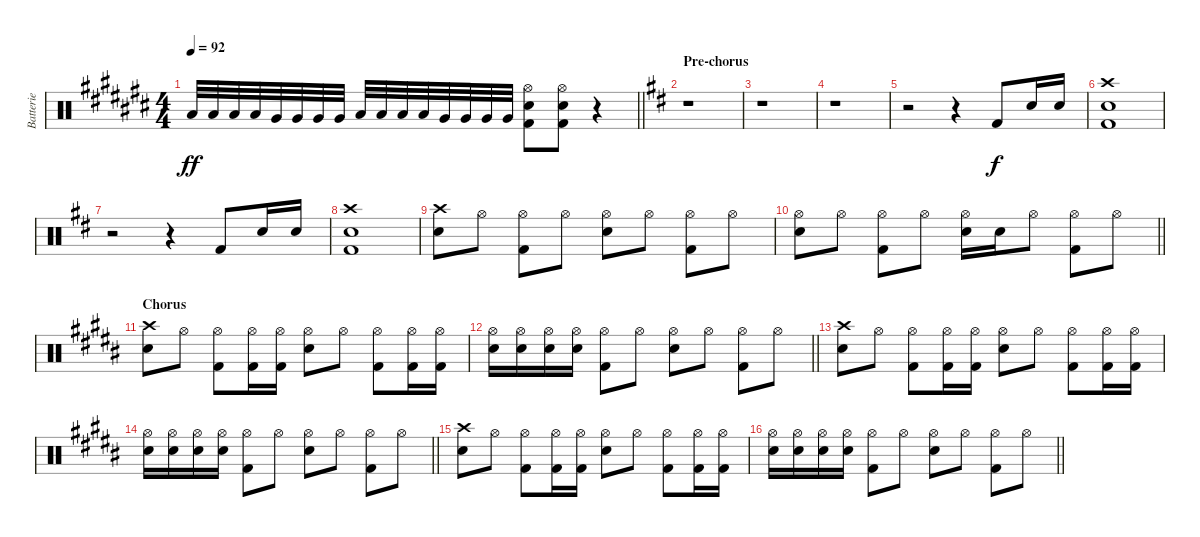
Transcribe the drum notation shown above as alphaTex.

\track ("Batterie" "Batterie") {instrument percussion}
\staff {score}
\articulation defaults
\ts (4 4)
\tempo 92
\clef neutral
\barLineRight lightlight
\ks c# "Low Tom (hit)".32{dy ff} "Low Tom (hit)".32 "Low Tom (hit)".32 "Low Tom (hit)".32 "Very Low Tom (hit)".32 "Very Low Tom (hit)".32 "Very Low Tom (hit)".32 "Very Low Tom (hit)".32 "Low Floor Tom (hit)".32 "Low Floor Tom (hit)".32 "Low Floor Tom (hit)".32 "Low Floor Tom (hit)".32 "Very Low Tom (hit)".32 "Very Low Tom (hit)".32 "Very Low Tom (hit)".32 "Very Low Tom (hit)".32
("Hi-Hat (open)" "Snare (hit) 2" "Kick (hit) 2").8 ("Hi-Hat (open)" "Snare (hit) 2" "Kick (hit) 2").8 r.4 |
\section ("" "Pre-chorus")
\ks d
r.1 |
r.1 |
r.1 |
r.2 r.4 "Kick (hit) 2".8{dy f} "Snare (hit) 2".16 "Snare (hit) 2".16 |
("Crash high (hit)" "Snare (hit) 2" "Kick (hit) 2").1 |
r.2 r.4 "Kick (hit) 2".8 "Snare (hit) 2".16 "Snare (hit) 2".16 |
("Crash high (hit)" "Snare (hit) 2" "Kick (hit) 2").1 |
("Crash high (hit)" "Snare (hit) 2").8 "Hi-Hat (open)".8 ("Hi-Hat (open)" "Kick (hit) 2").8 "Hi-Hat (open)".8 ("Hi-Hat (open)" "Snare (hit) 2").8 "Hi-Hat (open)".8 ("Hi-Hat (open)" "Kick (hit) 2").8 "Hi-Hat (open)".8 |
\barLineRight lightlight
("Hi-Hat (open)" "Snare (hit) 2").8 "Hi-Hat (open)".8 ("Hi-Hat (open)" "Kick (hit) 2").8 "Hi-Hat (open)".8 ("Hi-Hat (open)" "Snare (hit) 2").16 "Snare (hit) 2".16 "Hi-Hat (open)".8 ("Hi-Hat (open)" "Kick (hit) 2").8 "Hi-Hat (open)".8 |
\section ("" "Chorus")
\ks b
("Crash high (hit)" "Snare (hit) 2").8 "Hi-Hat (open)".8 ("Hi-Hat (open)" "Kick (hit) 2").8 ("Hi-Hat (open)" "Kick (hit) 2").16 ("Hi-Hat (open)" "Kick (hit) 2").16 ("Hi-Hat (open)" "Snare (hit) 2").8 "Hi-Hat (open)".8 ("Hi-Hat (open)" "Kick (hit) 2").8 ("Hi-Hat (open)" "Kick (hit) 2").16 ("Hi-Hat (open)" "Kick (hit) 2").16 |
\barLineRight lightlight
("Hi-Hat (open)" "Snare (hit) 2").16 ("Hi-Hat (open)" "Snare (hit) 2").16 ("Hi-Hat (open)" "Snare (hit) 2").16 ("Hi-Hat (open)" "Snare (hit) 2").16 ("Hi-Hat (open)" "Kick (hit) 2").8 "Hi-Hat (open)".8 ("Hi-Hat (open)" "Snare (hit) 2").8 "Hi-Hat (open)".8 ("Hi-Hat (open)" "Kick (hit) 2").8 "Hi-Hat (open)".8 |
("Crash high (hit)" "Snare (hit) 2").8 "Hi-Hat (open)".8 ("Hi-Hat (open)" "Kick (hit) 2").8 ("Hi-Hat (open)" "Kick (hit) 2").16 ("Hi-Hat (open)" "Kick (hit) 2").16 ("Hi-Hat (open)" "Snare (hit) 2").8 "Hi-Hat (open)".8 ("Hi-Hat (open)" "Kick (hit) 2").8 ("Hi-Hat (open)" "Kick (hit) 2").16 ("Hi-Hat (open)" "Kick (hit) 2").16 |
\barLineRight lightlight
("Hi-Hat (open)" "Snare (hit) 2").16 ("Hi-Hat (open)" "Snare (hit) 2").16 ("Hi-Hat (open)" "Snare (hit) 2").16 ("Hi-Hat (open)" "Snare (hit) 2").16 ("Hi-Hat (open)" "Kick (hit) 2").8 "Hi-Hat (open)".8 ("Hi-Hat (open)" "Snare (hit) 2").8 "Hi-Hat (open)".8 ("Hi-Hat (open)" "Kick (hit) 2").8 "Hi-Hat (open)".8 |
("Crash high (hit)" "Snare (hit) 2").8 "Hi-Hat (open)".8 ("Hi-Hat (open)" "Kick (hit) 2").8 ("Hi-Hat (open)" "Kick (hit) 2").16 ("Hi-Hat (open)" "Kick (hit) 2").16 ("Hi-Hat (open)" "Snare (hit) 2").8 "Hi-Hat (open)".8 ("Hi-Hat (open)" "Kick (hit) 2").8 ("Hi-Hat (open)" "Kick (hit) 2").16 ("Hi-Hat (open)" "Kick (hit) 2").16 |
\barLineRight lightlight
("Hi-Hat (open)" "Snare (hit) 2").16 ("Hi-Hat (open)" "Snare (hit) 2").16 ("Hi-Hat (open)" "Snare (hit) 2").16 ("Hi-Hat (open)" "Snare (hit) 2").16 ("Hi-Hat (open)" "Kick (hit) 2").8 "Hi-Hat (open)".8 ("Hi-Hat (open)" "Snare (hit) 2").8 "Hi-Hat (open)".8 ("Hi-Hat (open)" "Kick (hit) 2").8 "Hi-Hat (open)".8
